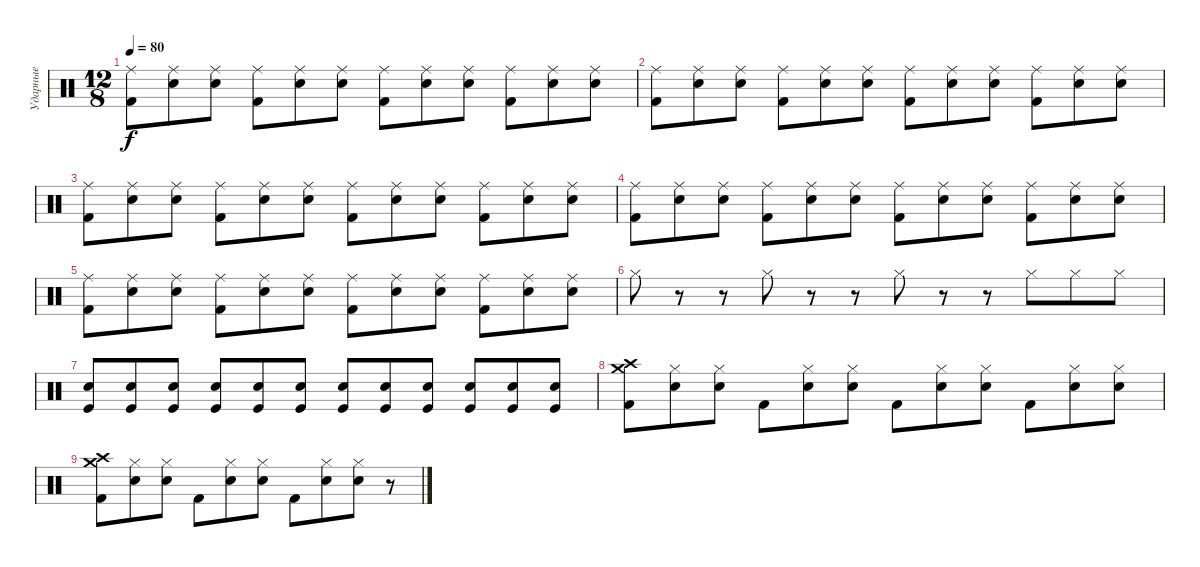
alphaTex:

\track ("Ударные" "Ударные") {instrument percussion}
\staff {score}
\articulation defaults
\ts (12 8)
\tempo 80
\clef neutral
\ks c
("Kick (hit) 2" "Ride (middle)").8{dy f} ("Electric Snare (hit)" "Ride (middle)").8 ("Electric Snare (hit)" "Ride (middle)").8 ("Kick (hit) 2" "Ride (middle)").8 ("Electric Snare (hit)" "Ride (middle)").8 ("Electric Snare (hit)" "Ride (middle)").8 ("Kick (hit) 2" "Ride (middle)").8 ("Electric Snare (hit)" "Ride (middle)").8 ("Electric Snare (hit)" "Ride (middle)").8 ("Kick (hit) 2" "Ride (middle)").8 ("Electric Snare (hit)" "Ride (middle)").8 ("Electric Snare (hit)" "Ride (middle)").8 |
("Kick (hit) 2" "Ride (middle)").8 ("Electric Snare (hit)" "Ride (middle)").8 ("Electric Snare (hit)" "Ride (middle)").8 ("Kick (hit) 2" "Ride (middle)").8 ("Electric Snare (hit)" "Ride (middle)").8 ("Electric Snare (hit)" "Ride (middle)").8 ("Kick (hit) 2" "Ride (middle)").8 ("Electric Snare (hit)" "Ride (middle)").8 ("Electric Snare (hit)" "Ride (middle)").8 ("Kick (hit) 2" "Ride (middle)").8 ("Electric Snare (hit)" "Ride (middle)").8 ("Electric Snare (hit)" "Ride (middle)").8 |
("Kick (hit) 2" "Ride (middle)").8 ("Electric Snare (hit)" "Ride (middle)").8 ("Electric Snare (hit)" "Ride (middle)").8 ("Kick (hit) 2" "Ride (middle)").8 ("Electric Snare (hit)" "Ride (middle)").8 ("Electric Snare (hit)" "Ride (middle)").8 ("Kick (hit) 2" "Ride (middle)").8 ("Electric Snare (hit)" "Ride (middle)").8 ("Electric Snare (hit)" "Ride (middle)").8 ("Kick (hit) 2" "Ride (middle)").8 ("Electric Snare (hit)" "Ride (middle)").8 ("Electric Snare (hit)" "Ride (middle)").8 |
("Kick (hit) 2" "Ride (middle)").8 ("Electric Snare (hit)" "Ride (middle)").8 ("Electric Snare (hit)" "Ride (middle)").8 ("Kick (hit) 2" "Ride (middle)").8 ("Electric Snare (hit)" "Ride (middle)").8 ("Electric Snare (hit)" "Ride (middle)").8 ("Kick (hit) 2" "Ride (middle)").8 ("Electric Snare (hit)" "Ride (middle)").8 ("Electric Snare (hit)" "Ride (middle)").8 ("Kick (hit) 2" "Ride (middle)").8 ("Electric Snare (hit)" "Ride (middle)").8 ("Electric Snare (hit)" "Ride (middle)").8 |
("Kick (hit) 2" "Ride (middle)").8 ("Electric Snare (hit)" "Ride (middle)").8 ("Electric Snare (hit)" "Ride (middle)").8 ("Kick (hit) 2" "Ride (middle)").8 ("Electric Snare (hit)" "Ride (middle)").8 ("Electric Snare (hit)" "Ride (middle)").8 ("Kick (hit) 2" "Ride (middle)").8 ("Electric Snare (hit)" "Ride (middle)").8 ("Electric Snare (hit)" "Ride (middle)").8 ("Kick (hit) 2" "Ride (middle)").8 ("Electric Snare (hit)" "Ride (middle)").8 ("Electric Snare (hit)" "Ride (middle)").8 |
"Hi-Hat (closed)".8 r.8 r.8 "Hi-Hat (closed)".8 r.8 r.8 "Hi-Hat (closed)".8 r.8 r.8 "Hi-Hat (closed)".8 "Hi-Hat (closed)".8 "Hi-Hat (closed)".8 |
("Electric Snare (hit)" "Kick (hit)").8 ("Electric Snare (hit)" "Kick (hit)").8 ("Electric Snare (hit)" "Kick (hit)").8 ("Electric Snare (hit)" "Kick (hit)").8 ("Electric Snare (hit)" "Kick (hit)").8 ("Electric Snare (hit)" "Kick (hit)").8 ("Electric Snare (hit)" "Kick (hit)").8 ("Electric Snare (hit)" "Kick (hit)").8 ("Electric Snare (hit)" "Kick (hit)").8 ("Electric Snare (hit)" "Kick (hit)").8 ("Electric Snare (hit)" "Kick (hit)").8 ("Electric Snare (hit)" "Kick (hit)").8 |
("Crash high (hit)" "Crash medium (hit)" "Kick (hit) 2").8 ("Electric Snare (hit)" "Hi-Hat (closed)").8 ("Electric Snare (hit)" "Hi-Hat (closed)").8 "Kick (hit) 2".8 ("Electric Snare (hit)" "Hi-Hat (closed)").8 ("Electric Snare (hit)" "Hi-Hat (closed)").8 "Kick (hit) 2".8 ("Electric Snare (hit)" "Hi-Hat (closed)").8 ("Electric Snare (hit)" "Hi-Hat (closed)").8 "Kick (hit) 2".8 ("Electric Snare (hit)" "Hi-Hat (closed)").8 ("Electric Snare (hit)" "Hi-Hat (closed)").8 |
("Crash high (hit)" "Crash medium (hit)" "Kick (hit) 2").8 ("Electric Snare (hit)" "Hi-Hat (closed)").8 ("Electric Snare (hit)" "Hi-Hat (closed)").8 "Kick (hit) 2".8 ("Electric Snare (hit)" "Hi-Hat (closed)").8 ("Electric Snare (hit)" "Hi-Hat (closed)").8 "Kick (hit) 2".8 ("Electric Snare (hit)" "Hi-Hat (closed)").8 ("Electric Snare (hit)" "Hi-Hat (closed)").8 r.8
